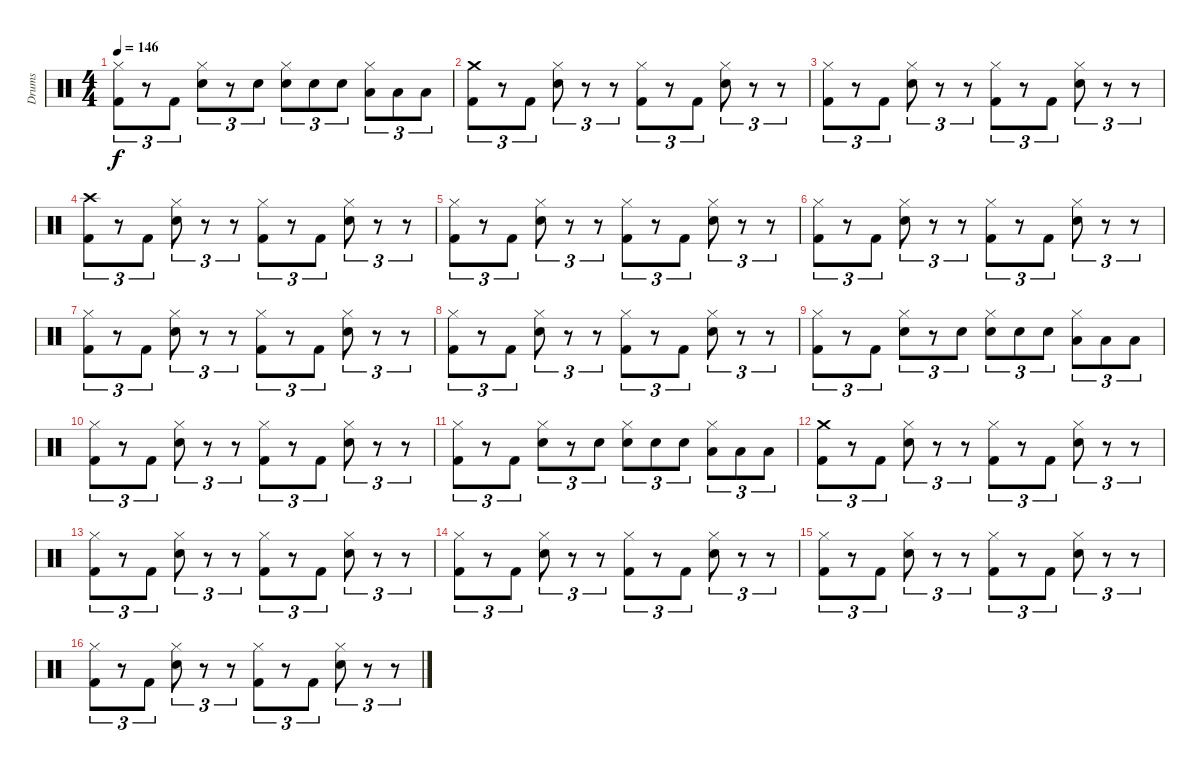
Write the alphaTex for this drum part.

\track ("Drums" "Drums") {instrument percussion}
\staff {score}
\articulation defaults
\ts (4 4)
\tempo 146
\clef neutral
\ks c
("Hi-Hat (closed)" "Kick (hit) 2").8{tu (3 2) dy f} r.8{tu (3 2)} "Kick (hit) 2".8{tu (3 2)} ("Hi-Hat (closed)" "Snare (hit) 2").8{tu (3 2)} r.8{tu (3 2)} "Snare (hit) 2".8{tu (3 2)} ("Hi-Hat (closed)" "Snare (hit) 2").8{tu (3 2)} "Snare (hit) 2".8{tu (3 2)} "Snare (hit) 2".8{tu (3 2)} ("Hi-Hat (closed)" "Low Tom (hit)").8{tu (3 2)} "Low Tom (hit)".8{tu (3 2)} "Low Tom (hit)".8{tu (3 2)} |
("Crash medium (hit)" "Kick (hit) 2").8{tu (3 2)} r.8{tu (3 2)} "Kick (hit) 2".8{tu (3 2)} ("Hi-Hat (closed)" "Snare (hit) 2").8{tu (3 2)} r.8{tu (3 2)} r.8{tu (3 2)} ("Hi-Hat (closed)" "Kick (hit) 2").8{tu (3 2)} r.8{tu (3 2)} "Kick (hit) 2".8{tu (3 2)} ("Hi-Hat (closed)" "Snare (hit) 2").8{tu (3 2)} r.8{tu (3 2)} r.8{tu (3 2)} |
("Hi-Hat (closed)" "Kick (hit) 2").8{tu (3 2)} r.8{tu (3 2)} "Kick (hit) 2".8{tu (3 2)} ("Hi-Hat (closed)" "Snare (hit) 2").8{tu (3 2)} r.8{tu (3 2)} r.8{tu (3 2)} ("Hi-Hat (closed)" "Kick (hit) 2").8{tu (3 2)} r.8{tu (3 2)} "Kick (hit) 2".8{tu (3 2)} ("Hi-Hat (closed)" "Snare (hit) 2").8{tu (3 2)} r.8{tu (3 2)} r.8{tu (3 2)} |
("Crash high (hit)" "Kick (hit) 2").8{tu (3 2)} r.8{tu (3 2)} "Kick (hit) 2".8{tu (3 2)} ("Hi-Hat (closed)" "Snare (hit) 2").8{tu (3 2)} r.8{tu (3 2)} r.8{tu (3 2)} ("Hi-Hat (closed)" "Kick (hit) 2").8{tu (3 2)} r.8{tu (3 2)} "Kick (hit) 2".8{tu (3 2)} ("Hi-Hat (closed)" "Snare (hit) 2").8{tu (3 2)} r.8{tu (3 2)} r.8{tu (3 2)} |
("Hi-Hat (closed)" "Kick (hit) 2").8{tu (3 2)} r.8{tu (3 2)} "Kick (hit) 2".8{tu (3 2)} ("Hi-Hat (closed)" "Snare (hit) 2").8{tu (3 2)} r.8{tu (3 2)} r.8{tu (3 2)} ("Hi-Hat (closed)" "Kick (hit) 2").8{tu (3 2)} r.8{tu (3 2)} "Kick (hit) 2".8{tu (3 2)} ("Hi-Hat (closed)" "Snare (hit) 2").8{tu (3 2)} r.8{tu (3 2)} r.8{tu (3 2)} |
("Hi-Hat (closed)" "Kick (hit) 2").8{tu (3 2)} r.8{tu (3 2)} "Kick (hit) 2".8{tu (3 2)} ("Hi-Hat (closed)" "Snare (hit) 2").8{tu (3 2)} r.8{tu (3 2)} r.8{tu (3 2)} ("Hi-Hat (closed)" "Kick (hit) 2").8{tu (3 2)} r.8{tu (3 2)} "Kick (hit) 2".8{tu (3 2)} ("Hi-Hat (closed)" "Snare (hit) 2").8{tu (3 2)} r.8{tu (3 2)} r.8{tu (3 2)} |
("Hi-Hat (closed)" "Kick (hit) 2").8{tu (3 2)} r.8{tu (3 2)} "Kick (hit) 2".8{tu (3 2)} ("Hi-Hat (closed)" "Snare (hit) 2").8{tu (3 2)} r.8{tu (3 2)} r.8{tu (3 2)} ("Hi-Hat (closed)" "Kick (hit) 2").8{tu (3 2)} r.8{tu (3 2)} "Kick (hit) 2".8{tu (3 2)} ("Hi-Hat (closed)" "Snare (hit) 2").8{tu (3 2)} r.8{tu (3 2)} r.8{tu (3 2)} |
("Hi-Hat (closed)" "Kick (hit) 2").8{tu (3 2)} r.8{tu (3 2)} "Kick (hit) 2".8{tu (3 2)} ("Hi-Hat (closed)" "Snare (hit) 2").8{tu (3 2)} r.8{tu (3 2)} r.8{tu (3 2)} ("Hi-Hat (closed)" "Kick (hit) 2").8{tu (3 2)} r.8{tu (3 2)} "Kick (hit) 2".8{tu (3 2)} ("Hi-Hat (closed)" "Snare (hit) 2").8{tu (3 2)} r.8{tu (3 2)} r.8{tu (3 2)} |
("Hi-Hat (closed)" "Kick (hit) 2").8{tu (3 2)} r.8{tu (3 2)} "Kick (hit) 2".8{tu (3 2)} ("Hi-Hat (closed)" "Snare (hit) 2").8{tu (3 2)} r.8{tu (3 2)} "Snare (hit) 2".8{tu (3 2)} ("Hi-Hat (closed)" "Snare (hit) 2").8{tu (3 2)} "Snare (hit) 2".8{tu (3 2)} "Snare (hit) 2".8{tu (3 2)} ("Hi-Hat (closed)" "Low Tom (hit)").8{tu (3 2)} "Low Tom (hit)".8{tu (3 2)} "Low Tom (hit)".8{tu (3 2)} |
("Hi-Hat (closed)" "Kick (hit) 2").8{tu (3 2)} r.8{tu (3 2)} "Kick (hit) 2".8{tu (3 2)} ("Hi-Hat (closed)" "Snare (hit) 2").8{tu (3 2)} r.8{tu (3 2)} r.8{tu (3 2)} ("Hi-Hat (closed)" "Kick (hit) 2").8{tu (3 2)} r.8{tu (3 2)} "Kick (hit) 2".8{tu (3 2)} ("Hi-Hat (closed)" "Snare (hit) 2").8{tu (3 2)} r.8{tu (3 2)} r.8{tu (3 2)} |
("Hi-Hat (closed)" "Kick (hit) 2").8{tu (3 2)} r.8{tu (3 2)} "Kick (hit) 2".8{tu (3 2)} ("Hi-Hat (closed)" "Snare (hit) 2").8{tu (3 2)} r.8{tu (3 2)} "Snare (hit) 2".8{tu (3 2)} ("Hi-Hat (closed)" "Snare (hit) 2").8{tu (3 2)} "Snare (hit) 2".8{tu (3 2)} "Snare (hit) 2".8{tu (3 2)} ("Hi-Hat (closed)" "Low Tom (hit)").8{tu (3 2)} "Low Tom (hit)".8{tu (3 2)} "Low Tom (hit)".8{tu (3 2)} |
("Crash medium (hit)" "Kick (hit) 2").8{tu (3 2)} r.8{tu (3 2)} "Kick (hit) 2".8{tu (3 2)} ("Hi-Hat (closed)" "Snare (hit) 2").8{tu (3 2)} r.8{tu (3 2)} r.8{tu (3 2)} ("Hi-Hat (closed)" "Kick (hit) 2").8{tu (3 2)} r.8{tu (3 2)} "Kick (hit) 2".8{tu (3 2)} ("Hi-Hat (closed)" "Snare (hit) 2").8{tu (3 2)} r.8{tu (3 2)} r.8{tu (3 2)} |
("Hi-Hat (closed)" "Kick (hit) 2").8{tu (3 2)} r.8{tu (3 2)} "Kick (hit) 2".8{tu (3 2)} ("Hi-Hat (closed)" "Snare (hit) 2").8{tu (3 2)} r.8{tu (3 2)} r.8{tu (3 2)} ("Hi-Hat (closed)" "Kick (hit) 2").8{tu (3 2)} r.8{tu (3 2)} "Kick (hit) 2".8{tu (3 2)} ("Hi-Hat (closed)" "Snare (hit) 2").8{tu (3 2)} r.8{tu (3 2)} r.8{tu (3 2)} |
("Hi-Hat (closed)" "Kick (hit) 2").8{tu (3 2)} r.8{tu (3 2)} "Kick (hit) 2".8{tu (3 2)} ("Hi-Hat (closed)" "Snare (hit) 2").8{tu (3 2)} r.8{tu (3 2)} r.8{tu (3 2)} ("Hi-Hat (closed)" "Kick (hit) 2").8{tu (3 2)} r.8{tu (3 2)} "Kick (hit) 2".8{tu (3 2)} ("Hi-Hat (closed)" "Snare (hit) 2").8{tu (3 2)} r.8{tu (3 2)} r.8{tu (3 2)} |
("Hi-Hat (closed)" "Kick (hit) 2").8{tu (3 2)} r.8{tu (3 2)} "Kick (hit) 2".8{tu (3 2)} ("Hi-Hat (closed)" "Snare (hit) 2").8{tu (3 2)} r.8{tu (3 2)} r.8{tu (3 2)} ("Hi-Hat (closed)" "Kick (hit) 2").8{tu (3 2)} r.8{tu (3 2)} "Kick (hit) 2".8{tu (3 2)} ("Hi-Hat (closed)" "Snare (hit) 2").8{tu (3 2)} r.8{tu (3 2)} r.8{tu (3 2)} |
("Hi-Hat (closed)" "Kick (hit) 2").8{tu (3 2)} r.8{tu (3 2)} "Kick (hit) 2".8{tu (3 2)} ("Hi-Hat (closed)" "Snare (hit) 2").8{tu (3 2)} r.8{tu (3 2)} r.8{tu (3 2)} ("Hi-Hat (closed)" "Kick (hit) 2").8{tu (3 2)} r.8{tu (3 2)} "Kick (hit) 2".8{tu (3 2)} ("Hi-Hat (closed)" "Snare (hit) 2").8{tu (3 2)} r.8{tu (3 2)} r.8{tu (3 2)}
